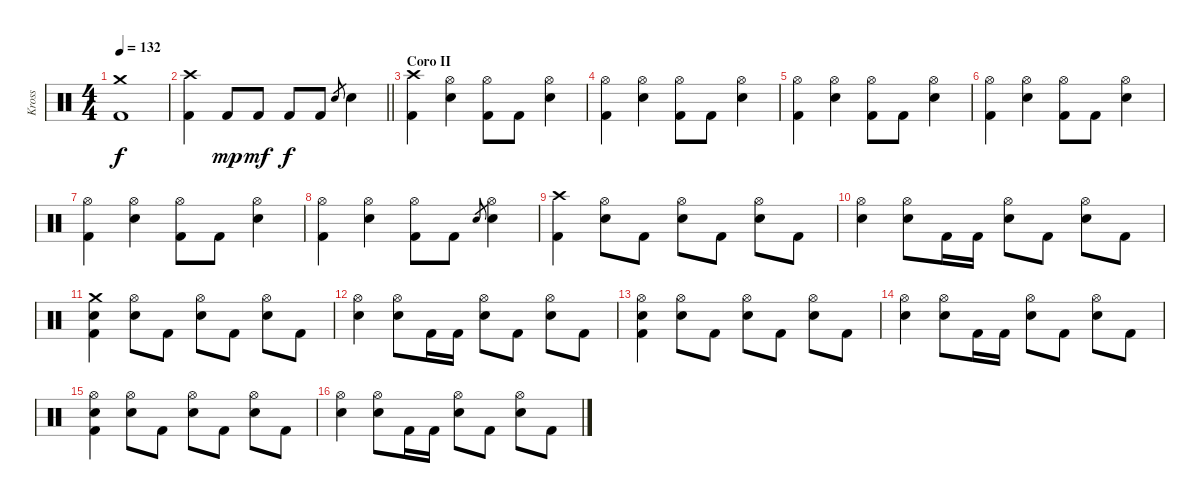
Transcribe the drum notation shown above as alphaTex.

\track ("Kross" "Kross") {instrument percussion}
\staff {score}
\articulation defaults
\ts (4 4)
\tempo 132
\clef neutral
\ks c
("Crash medium (hit)" "Kick (hit) 2").1{dy f} |
\barLineRight lightlight
("Crash high (hit)" "Kick (hit) 2").4 "Kick (hit) 2".8{dy mp} "Kick (hit) 2".8{dy mf} "Kick (hit) 2".8{dy f} "Kick (hit) 2".8 "Electric Snare (hit)".8{gr} "Electric Snare (hit)".4 |
\section ("" "Coro II")
("Crash high (hit)" "Kick (hit) 2").4 ("Hi-Hat (open)" "Electric Snare (hit)").4 ("Hi-Hat (open)" "Kick (hit) 2").8 "Kick (hit) 2".8 ("Hi-Hat (open)" "Electric Snare (hit)").4 |
("Hi-Hat (open)" "Kick (hit) 2").4 ("Hi-Hat (open)" "Electric Snare (hit)").4 ("Hi-Hat (open)" "Kick (hit) 2").8 "Kick (hit) 2".8 ("Hi-Hat (open)" "Electric Snare (hit)").4 |
("Hi-Hat (open)" "Kick (hit) 2").4 ("Hi-Hat (open)" "Electric Snare (hit)").4 ("Hi-Hat (open)" "Kick (hit) 2").8 "Kick (hit) 2".8 ("Hi-Hat (open)" "Electric Snare (hit)").4 |
("Hi-Hat (open)" "Kick (hit) 2").4 ("Hi-Hat (open)" "Electric Snare (hit)").4 ("Hi-Hat (open)" "Kick (hit) 2").8 "Kick (hit) 2".8 ("Hi-Hat (open)" "Electric Snare (hit)").4 |
("Hi-Hat (open)" "Kick (hit) 2").4 ("Hi-Hat (open)" "Electric Snare (hit)").4 ("Hi-Hat (open)" "Kick (hit) 2").8 "Kick (hit) 2".8 ("Hi-Hat (open)" "Electric Snare (hit)").4 |
("Hi-Hat (open)" "Kick (hit) 2").4 ("Hi-Hat (open)" "Electric Snare (hit)").4 ("Hi-Hat (open)" "Kick (hit) 2").8 "Kick (hit) 2".8 "Electric Snare (hit)".8{gr} ("Hi-Hat (open)" "Electric Snare (hit)").4 |
("Crash high (hit)" "Kick (hit) 2").4 ("Hi-Hat (open)" "Electric Snare (hit)").8 "Kick (hit) 2".8 ("Hi-Hat (open)" "Electric Snare (hit)").8 "Kick (hit) 2".8 ("Hi-Hat (open)" "Electric Snare (hit)").8 "Kick (hit) 2".8 |
("Hi-Hat (open)" "Electric Snare (hit)").4 ("Hi-Hat (open)" "Electric Snare (hit)").8 "Kick (hit) 2".16 "Kick (hit) 2".16 ("Hi-Hat (open)" "Electric Snare (hit)").8 "Kick (hit) 2".8 ("Hi-Hat (open)" "Electric Snare (hit)").8 "Kick (hit) 2".8 |
("Crash medium (hit)" "Electric Snare (hit)" "Kick (hit) 2").4 ("Hi-Hat (open)" "Electric Snare (hit)").8 "Kick (hit) 2".8 ("Hi-Hat (open)" "Electric Snare (hit)").8 "Kick (hit) 2".8 ("Hi-Hat (open)" "Electric Snare (hit)").8 "Kick (hit) 2".8 |
("Hi-Hat (open)" "Electric Snare (hit)").4 ("Hi-Hat (open)" "Electric Snare (hit)").8 "Kick (hit) 2".16 "Kick (hit) 2".16 ("Hi-Hat (open)" "Electric Snare (hit)").8 "Kick (hit) 2".8 ("Hi-Hat (open)" "Electric Snare (hit)").8 "Kick (hit) 2".8 |
("Hi-Hat (open)" "Electric Snare (hit)" "Kick (hit) 2").4 ("Hi-Hat (open)" "Electric Snare (hit)").8 "Kick (hit) 2".8 ("Hi-Hat (open)" "Electric Snare (hit)").8 "Kick (hit) 2".8 ("Hi-Hat (open)" "Electric Snare (hit)").8 "Kick (hit) 2".8 |
("Hi-Hat (open)" "Electric Snare (hit)").4 ("Hi-Hat (open)" "Electric Snare (hit)").8 "Kick (hit) 2".16 "Kick (hit) 2".16 ("Hi-Hat (open)" "Electric Snare (hit)").8 "Kick (hit) 2".8 ("Hi-Hat (open)" "Electric Snare (hit)").8 "Kick (hit) 2".8 |
("Hi-Hat (open)" "Electric Snare (hit)" "Kick (hit) 2").4 ("Hi-Hat (open)" "Electric Snare (hit)").8 "Kick (hit) 2".8 ("Hi-Hat (open)" "Electric Snare (hit)").8 "Kick (hit) 2".8 ("Hi-Hat (open)" "Electric Snare (hit)").8 "Kick (hit) 2".8 |
("Hi-Hat (open)" "Electric Snare (hit)").4 ("Hi-Hat (open)" "Electric Snare (hit)").8 "Kick (hit) 2".16 "Kick (hit) 2".16 ("Hi-Hat (open)" "Electric Snare (hit)").8 "Kick (hit) 2".8 ("Hi-Hat (open)" "Electric Snare (hit)").8 "Kick (hit) 2".8
